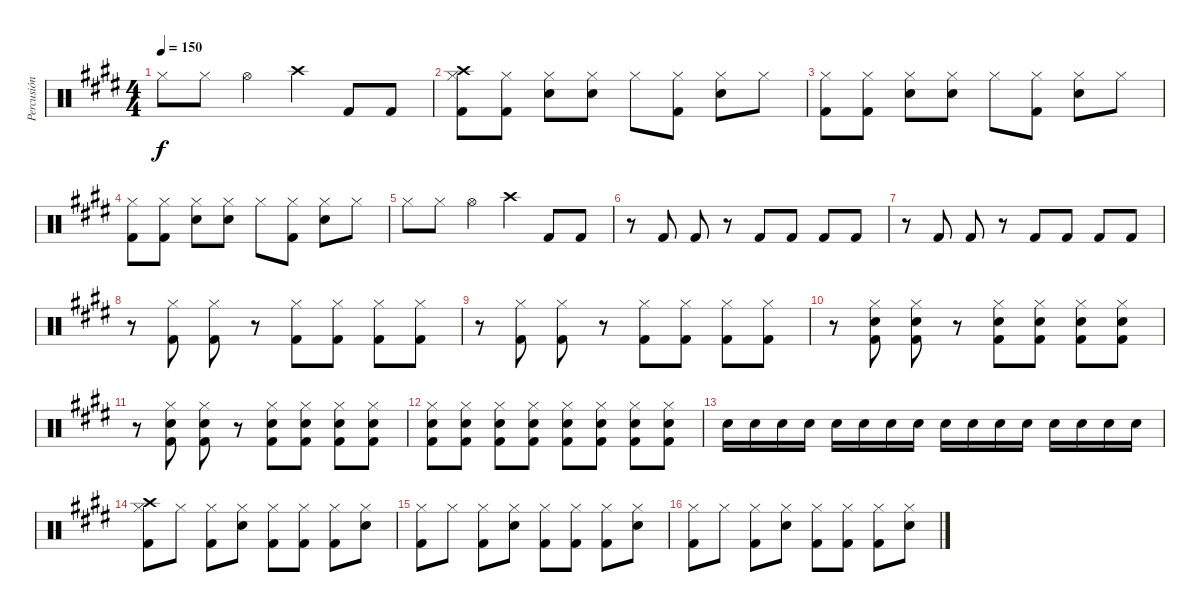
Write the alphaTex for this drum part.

\track ("Percusión" "Percusión") {instrument percussion}
\staff {score}
\articulation defaults
\ts (4 4)
\tempo 150
\clef neutral
\ks e "Hi-Hat (closed)".8{dy f} "Hi-Hat (closed)".8 "Hi-Hat (open)".4 "Crash high (hit)".4 "Kick (hit) 2".8 "Kick (hit) 2".8
|
("Kick (hit) 2" "Hi-Hat (closed)" "Crash high (hit)").8 ("Kick (hit) 2" "Hi-Hat (closed)").8 ("Snare (hit) 2" "Hi-Hat (closed)").8 ("Snare (hit) 2" "Hi-Hat (closed)").8 "Hi-Hat (closed)".8 ("Kick (hit) 2" "Hi-Hat (closed)").8 ("Snare (hit) 2" "Hi-Hat (closed)").8 "Hi-Hat (closed)".8 |
("Kick (hit) 2" "Hi-Hat (closed)").8 ("Kick (hit) 2" "Hi-Hat (closed)").8 ("Snare (hit) 2" "Hi-Hat (closed)").8 ("Snare (hit) 2" "Hi-Hat (closed)").8 "Hi-Hat (closed)".8 ("Kick (hit) 2" "Hi-Hat (closed)").8 ("Snare (hit) 2" "Hi-Hat (closed)").8 "Hi-Hat (closed)".8 |
("Kick (hit) 2" "Hi-Hat (closed)").8 ("Kick (hit) 2" "Hi-Hat (closed)").8 ("Snare (hit) 2" "Hi-Hat (closed)").8 ("Snare (hit) 2" "Hi-Hat (closed)").8 "Hi-Hat (closed)".8 ("Kick (hit) 2" "Hi-Hat (closed)").8 ("Snare (hit) 2" "Hi-Hat (closed)").8 "Hi-Hat (closed)".8 |
"Hi-Hat (closed)".8 "Hi-Hat (closed)".8 "Hi-Hat (open)".4 "Crash high (hit)".4 "Kick (hit) 2".8 "Kick (hit) 2".8 |
r.8 "Kick (hit) 2".8 "Kick (hit) 2".8 r.8 "Kick (hit) 2".8 "Kick (hit) 2".8 "Kick (hit) 2".8 "Kick (hit) 2".8 |
r.8 "Kick (hit) 2".8 "Kick (hit) 2".8 r.8 "Kick (hit) 2".8 "Kick (hit) 2".8 "Kick (hit) 2".8 "Kick (hit) 2".8 |
r.8 ("Hi-Hat (closed)" "Kick (hit) 2").8 ("Hi-Hat (closed)" "Kick (hit) 2").8 r.8 ("Hi-Hat (closed)" "Kick (hit) 2").8 ("Hi-Hat (closed)" "Kick (hit) 2").8 ("Hi-Hat (closed)" "Kick (hit) 2").8 ("Hi-Hat (closed)" "Kick (hit) 2").8 |
r.8 ("Hi-Hat (closed)" "Kick (hit) 2").8 ("Hi-Hat (closed)" "Kick (hit) 2").8 r.8 ("Hi-Hat (closed)" "Kick (hit) 2").8 ("Hi-Hat (closed)" "Kick (hit) 2").8 ("Hi-Hat (closed)" "Kick (hit) 2").8 ("Hi-Hat (closed)" "Kick (hit) 2").8 |
r.8 ("Snare (hit) 2" "Hi-Hat (closed)" "Kick (hit) 2").8 ("Snare (hit) 2" "Hi-Hat (closed)" "Kick (hit) 2").8 r.8 ("Snare (hit) 2" "Hi-Hat (closed)" "Kick (hit) 2").8 ("Snare (hit) 2" "Hi-Hat (closed)" "Kick (hit) 2").8 ("Snare (hit) 2" "Hi-Hat (closed)" "Kick (hit) 2").8 ("Snare (hit) 2" "Hi-Hat (closed)" "Kick (hit) 2").8 |
r.8 ("Snare (hit) 2" "Hi-Hat (closed)" "Kick (hit) 2").8 ("Snare (hit) 2" "Hi-Hat (closed)" "Kick (hit) 2").8 r.8 ("Snare (hit) 2" "Hi-Hat (closed)" "Kick (hit) 2").8 ("Snare (hit) 2" "Hi-Hat (closed)" "Kick (hit) 2").8 ("Snare (hit) 2" "Hi-Hat (closed)" "Kick (hit) 2").8 ("Snare (hit) 2" "Hi-Hat (closed)" "Kick (hit) 2").8 |
("Snare (hit) 2" "Kick (hit) 2" "Hi-Hat (closed)").8 ("Snare (hit) 2" "Kick (hit) 2" "Hi-Hat (closed)").8 ("Snare (hit) 2" "Kick (hit) 2" "Hi-Hat (closed)").8 ("Snare (hit) 2" "Kick (hit) 2" "Hi-Hat (closed)").8 ("Snare (hit) 2" "Kick (hit) 2" "Hi-Hat (closed)").8 ("Snare (hit) 2" "Kick (hit) 2" "Hi-Hat (closed)").8 ("Snare (hit) 2" "Kick (hit) 2" "Hi-Hat (closed)").8 ("Snare (hit) 2" "Kick (hit) 2" "Hi-Hat (closed)").8 |
"Snare (hit) 2".16 "Snare (hit) 2".16 "Snare (hit) 2".16 "Snare (hit) 2".16 "Snare (hit) 2".16 "Snare (hit) 2".16 "Snare (hit) 2".16 "Snare (hit) 2".16 "Snare (hit) 2".16 "Snare (hit) 2".16 "Snare (hit) 2".16 "Snare (hit) 2".16 "Snare (hit) 2".16 "Snare (hit) 2".16 "Snare (hit) 2".16 "Snare (hit) 2".16 |
("Kick (hit) 2" "Hi-Hat (closed)" "Crash high (hit)").8 "Hi-Hat (closed)".8 ("Kick (hit) 2" "Hi-Hat (closed)").8 ("Snare (hit) 2" "Hi-Hat (closed)").8 ("Kick (hit) 2" "Hi-Hat (closed)").8 ("Kick (hit) 2" "Hi-Hat (closed)").8 ("Kick (hit) 2" "Hi-Hat (closed)").8 ("Snare (hit) 2" "Hi-Hat (closed)").8 |
("Kick (hit) 2" "Hi-Hat (closed)").8 "Hi-Hat (closed)".8 ("Kick (hit) 2" "Hi-Hat (closed)").8 ("Snare (hit) 2" "Hi-Hat (closed)").8 ("Kick (hit) 2" "Hi-Hat (closed)").8 ("Kick (hit) 2" "Hi-Hat (closed)").8 ("Kick (hit) 2" "Hi-Hat (closed)").8 ("Snare (hit) 2" "Hi-Hat (closed)").8 |
("Kick (hit) 2" "Hi-Hat (closed)").8 "Hi-Hat (closed)".8 ("Kick (hit) 2" "Hi-Hat (closed)").8 ("Snare (hit) 2" "Hi-Hat (closed)").8 ("Kick (hit) 2" "Hi-Hat (closed)").8 ("Kick (hit) 2" "Hi-Hat (closed)").8 ("Kick (hit) 2" "Hi-Hat (closed)").8 ("Snare (hit) 2" "Hi-Hat (closed)").8
